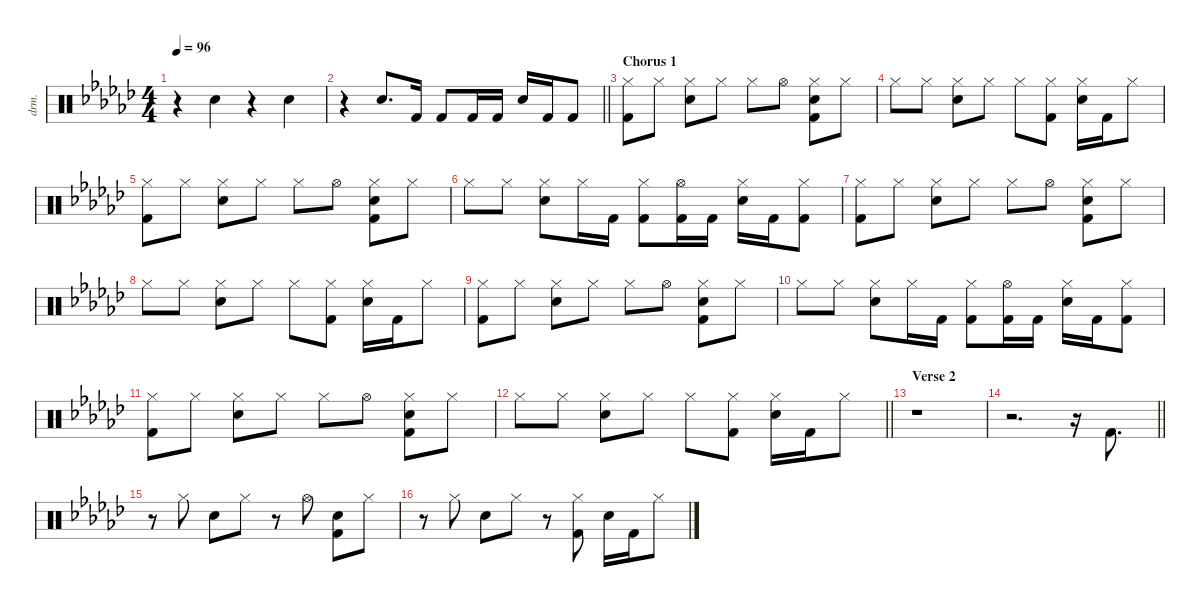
\defaultSystemsLayout 4
\hideDynamics
\bracketExtendMode nobrackets
\otherSystemsTrackNameOrientation horizontal
\track ("Percussion" "drm.") {instrument percussion}
\staff {score}
\articulation defaults
\ts (4 4)
\tempo 96
\clef neutral
\ks gb
r.4{dy f beam Down} "Snare (hit) 2"{acc forcenatural}.4{beam Down} r.4{beam Down} "Snare (hit) 2"{acc forcenatural}.4{beam Down} |
\barLineRight lightlight
r.4{beam Down} "Snare (hit) 2"{acc forcenatural}.8{d beam Up} "Kick (hit) 2"{acc forcenatural}.16{beam Up} "Kick (hit) 2"{acc forcenatural}.8{beam Up} "Kick (hit) 2"{acc forcenatural}.16{beam Up} "Kick (hit) 2"{acc forcenatural}.16{beam Up} "Snare (hit) 2"{acc forcenatural}.16{beam Up} "Kick (hit) 2"{acc forcenatural}.16{beam Up} "Kick (hit) 2"{acc forcenatural}.8{beam Up} |
\section ("" "Chorus 1")
("Hi-Hat (closed)"{acc forcenatural} "Kick (hit) 2"{acc forcenatural}).8{beam Down} "Hi-Hat (closed)"{acc forcenatural}.8{beam Down} ("Hi-Hat (closed)"{acc forcenatural} "Snare (hit) 2"{acc forcenatural}).8{beam Down} "Hi-Hat (closed)"{acc forcenatural}.8{beam Down} "Hi-Hat (closed)"{acc forcenatural}.8{beam Down} "Hi-Hat (open)"{acc forcenatural}.8{beam Down} ("Hi-Hat (closed)"{acc forcenatural} "Snare (hit) 2"{acc forcenatural} "Kick (hit) 2"{acc forcenatural}).8{beam Down} "Hi-Hat (closed)"{acc forcenatural}.8{beam Down} |
"Hi-Hat (closed)"{acc forcenatural}.8{beam Down} "Hi-Hat (closed)"{acc forcenatural}.8{beam Down} ("Hi-Hat (closed)"{acc forcenatural} "Snare (hit) 2"{acc forcenatural}).8{beam Down} "Hi-Hat (closed)"{acc forcenatural}.8{beam Down} "Hi-Hat (closed)"{acc forcenatural}.8{beam Down} ("Hi-Hat (closed)"{acc forcenatural} "Kick (hit) 2"{acc forcenatural}).8{beam Down} ("Hi-Hat (closed)"{acc forcenatural} "Snare (hit) 2"{acc forcenatural}).16{beam Down} "Kick (hit) 2"{acc forcenatural}.16{beam Down} "Hi-Hat (closed)"{acc forcenatural}.8{beam Down} |
("Hi-Hat (closed)"{acc forcenatural} "Kick (hit) 2"{acc forcenatural}).8{beam Down} "Hi-Hat (closed)"{acc forcenatural}.8{beam Down} ("Hi-Hat (closed)"{acc forcenatural} "Snare (hit) 2"{acc forcenatural}).8{beam Down} "Hi-Hat (closed)"{acc forcenatural}.8{beam Down} "Hi-Hat (closed)"{acc forcenatural}.8{beam Down} "Hi-Hat (open)"{acc forcenatural}.8{beam Down} ("Hi-Hat (closed)"{acc forcenatural} "Snare (hit) 2"{acc forcenatural} "Kick (hit) 2"{acc forcenatural}).8{beam Down} "Hi-Hat (closed)"{acc forcenatural}.8{beam Down} |
"Hi-Hat (closed)"{acc forcenatural}.8{beam Down} "Hi-Hat (closed)"{acc forcenatural}.8{beam Down} ("Hi-Hat (closed)"{acc forcenatural} "Snare (hit) 2"{acc forcenatural}).8{beam Down} "Hi-Hat (closed)"{acc forcenatural}.16{beam Down} "Kick (hit) 2"{acc forcenatural}.16{beam Down} ("Hi-Hat (closed)"{acc forcenatural} "Kick (hit) 2"{acc forcenatural}).8{beam Down} ("Hi-Hat (open)"{acc forcenatural} "Kick (hit) 2"{acc forcenatural}).16{beam Down} "Kick (hit) 2"{acc forcenatural}.16{beam Down} ("Hi-Hat (closed)"{acc forcenatural} "Snare (hit) 2"{acc forcenatural}).16{beam Down} "Kick (hit) 2"{acc forcenatural}.16{beam Down} ("Hi-Hat (closed)"{acc forcenatural} "Kick (hit) 2"{acc forcenatural}).8{beam Down} |
("Hi-Hat (closed)"{acc forcenatural} "Kick (hit) 2"{acc forcenatural}).8{beam Down} "Hi-Hat (closed)"{acc forcenatural}.8{beam Down} ("Hi-Hat (closed)"{acc forcenatural} "Snare (hit) 2"{acc forcenatural}).8{beam Down} "Hi-Hat (closed)"{acc forcenatural}.8{beam Down} "Hi-Hat (closed)"{acc forcenatural}.8{beam Down} "Hi-Hat (open)"{acc forcenatural}.8{beam Down} ("Hi-Hat (closed)"{acc forcenatural} "Snare (hit) 2"{acc forcenatural} "Kick (hit) 2"{acc forcenatural}).8{beam Down} "Hi-Hat (closed)"{acc forcenatural}.8{beam Down} |
"Hi-Hat (closed)"{acc forcenatural}.8{beam Down} "Hi-Hat (closed)"{acc forcenatural}.8{beam Down} ("Hi-Hat (closed)"{acc forcenatural} "Snare (hit) 2"{acc forcenatural}).8{beam Down} "Hi-Hat (closed)"{acc forcenatural}.8{beam Down} "Hi-Hat (closed)"{acc forcenatural}.8{beam Down} ("Hi-Hat (closed)"{acc forcenatural} "Kick (hit) 2"{acc forcenatural}).8{beam Down} ("Hi-Hat (closed)"{acc forcenatural} "Snare (hit) 2"{acc forcenatural}).16{beam Down} "Kick (hit) 2"{acc forcenatural}.16{beam Down} "Hi-Hat (closed)"{acc forcenatural}.8{beam Down} |
("Hi-Hat (closed)"{acc forcenatural} "Kick (hit) 2"{acc forcenatural}).8{beam Down} "Hi-Hat (closed)"{acc forcenatural}.8{beam Down} ("Hi-Hat (closed)"{acc forcenatural} "Snare (hit) 2"{acc forcenatural}).8{beam Down} "Hi-Hat (closed)"{acc forcenatural}.8{beam Down} "Hi-Hat (closed)"{acc forcenatural}.8{beam Down} "Hi-Hat (open)"{acc forcenatural}.8{beam Down} ("Hi-Hat (closed)"{acc forcenatural} "Snare (hit) 2"{acc forcenatural} "Kick (hit) 2"{acc forcenatural}).8{beam Down} "Hi-Hat (closed)"{acc forcenatural}.8{beam Down} |
"Hi-Hat (closed)"{acc forcenatural}.8{beam Down} "Hi-Hat (closed)"{acc forcenatural}.8{beam Down} ("Hi-Hat (closed)"{acc forcenatural} "Snare (hit) 2"{acc forcenatural}).8{beam Down} "Hi-Hat (closed)"{acc forcenatural}.16{beam Down} "Kick (hit) 2"{acc forcenatural}.16{beam Down} ("Hi-Hat (closed)"{acc forcenatural} "Kick (hit) 2"{acc forcenatural}).8{beam Down} ("Hi-Hat (open)"{acc forcenatural} "Kick (hit) 2"{acc forcenatural}).16{beam Down} "Kick (hit) 2"{acc forcenatural}.16{beam Down} ("Hi-Hat (closed)"{acc forcenatural} "Snare (hit) 2"{acc forcenatural}).16{beam Down} "Kick (hit) 2"{acc forcenatural}.16{beam Down} ("Hi-Hat (closed)"{acc forcenatural} "Kick (hit) 2"{acc forcenatural}).8{beam Down} |
("Hi-Hat (closed)"{acc forcenatural} "Kick (hit) 2"{acc forcenatural}).8{beam Down} "Hi-Hat (closed)"{acc forcenatural}.8{beam Down} ("Hi-Hat (closed)"{acc forcenatural} "Snare (hit) 2"{acc forcenatural}).8{beam Down} "Hi-Hat (closed)"{acc forcenatural}.8{beam Down} "Hi-Hat (closed)"{acc forcenatural}.8{beam Down} "Hi-Hat (open)"{acc forcenatural}.8{beam Down} ("Hi-Hat (closed)"{acc forcenatural} "Snare (hit) 2"{acc forcenatural} "Kick (hit) 2"{acc forcenatural}).8{beam Down} "Hi-Hat (closed)"{acc forcenatural}.8{beam Down} |
\barLineRight lightlight "Hi-Hat (closed)"{acc forcenatural}.8{beam Down} "Hi-Hat (closed)"{acc forcenatural}.8{beam Down}
("Hi-Hat (closed)"{acc forcenatural} "Snare (hit) 2"{acc forcenatural}).8{beam Down} "Hi-Hat (closed)"{acc forcenatural}.8{beam Down} "Hi-Hat (closed)"{acc forcenatural}.8{beam Down} ("Hi-Hat (closed)"{acc forcenatural} "Kick (hit) 2"{acc forcenatural}).8{beam Down} ("Hi-Hat (closed)"{acc forcenatural} "Snare (hit) 2"{acc forcenatural}).16{beam Down} "Kick (hit) 2"{acc forcenatural}.16{beam Down} "Hi-Hat (closed)"{acc forcenatural}.8{beam Down} |
\section ("" "Verse 2")
r.1{beam Down} |
\barLineRight lightlight
r.2{d beam Down} r.16{beam Down} "Kick (hit) 2"{acc forcenatural}.8{d beam Up} |
r.8{beam Down} "Hi-Hat (closed)"{acc forcenatural}.8{beam Down} "Snare (hit) 2"{acc forcenatural}.8{beam Down} "Hi-Hat (closed)"{acc forcenatural}.8{beam Down} r.8{beam Down} "Hi-Hat (open)"{acc forcenatural}.8{beam Down} ("Snare (hit) 2"{acc forcenatural} "Kick (hit) 2"{acc forcenatural}).8{beam Down} "Hi-Hat (closed)"{acc forcenatural}.8{beam Down} |
r.8{beam Down} "Hi-Hat (closed)"{acc forcenatural}.8{beam Down} "Snare (hit) 2"{acc forcenatural}.8{beam Down} "Hi-Hat (closed)"{acc forcenatural}.8{beam Down} r.8{beam Down} ("Hi-Hat (closed)"{acc forcenatural} "Kick (hit) 2"{acc forcenatural}).8{beam Down} "Snare (hit) 2"{acc forcenatural}.16{beam Down} "Kick (hit) 2"{acc forcenatural}.16{beam Down} "Hi-Hat (closed)"{acc forcenatural}.8{beam Down}
